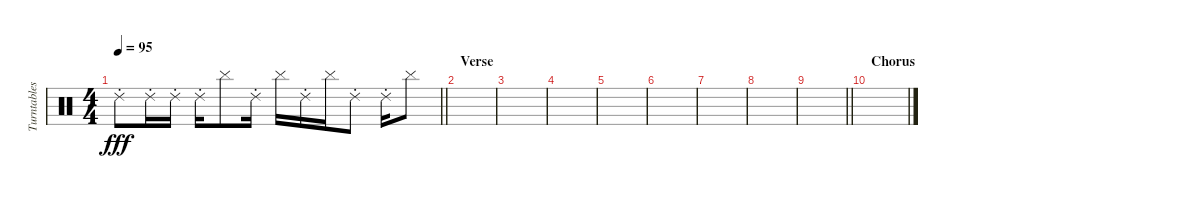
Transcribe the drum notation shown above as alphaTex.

\track ("Turntables - Joe Hahn" "Turntables") {instrument percussion}
\staff {score}
\articulation defaults
\ts (4 4)
\tempo 95
\clef neutral
\barLineRight lightlight
\ks c "Ride (choke) 2".8{dy fff} "Ride (choke) 2".16 "Ride (choke) 2".16 "Ride (choke) 2".16 "Cymbal (hit)".8 "Ride (choke) 2".16 "Cymbal (hit)".16 "Ride (choke) 2".16 "Cymbal (hit)".16 "Ride (choke) 2".8 "Ride (choke) 2".16 "Cymbal (hit)".8
|
\section ("" "Verse")
|
|
|
|
|
|
|
\barLineRight lightlight
|
\section ("" "Chorus")
